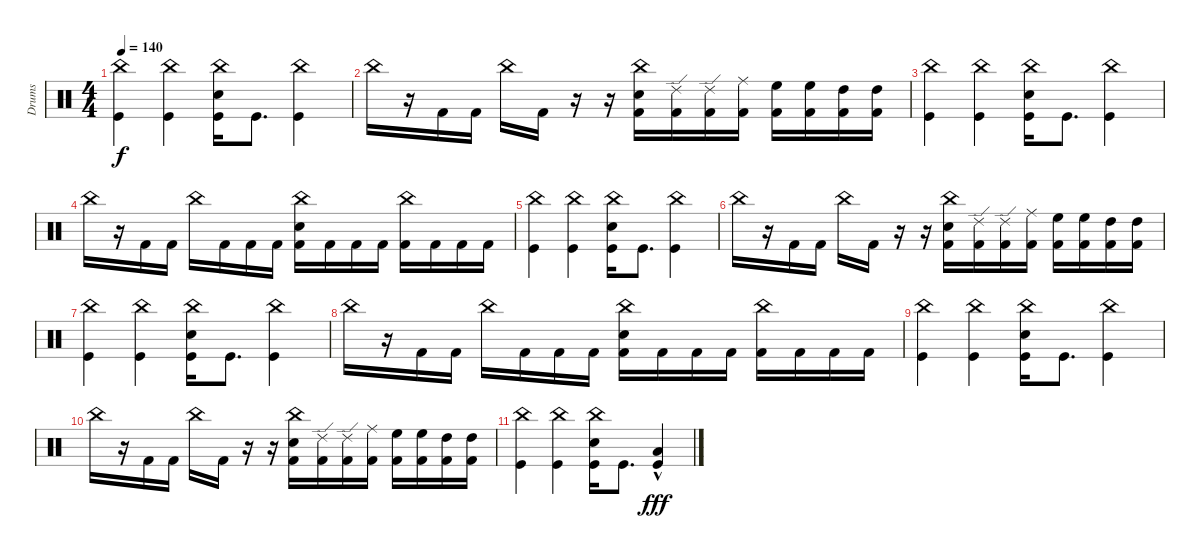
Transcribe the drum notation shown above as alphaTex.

\track ("Drums" "Drums") {mute instrument percussion}
\staff {score}
\articulation defaults
\ts (4 4)
\tempo 140
\clef neutral
\ks c
("China (hit)" "Kick (hit)").4{dy f} ("China (hit)" "Kick (hit)").4 ("China (hit)" "Electric Snare (hit)" "Kick (hit)").16 "Kick (hit)".8{d} ("China (hit)" "Kick (hit)").4 |
"China (hit)".16 r.16 "Kick (hit) 2".16 "Kick (hit) 2".16 "China (hit)".16 "Kick (hit) 2".16 r.16 r.16 ("China (hit)" "Electric Snare (hit)" "Kick (hit) 2").16 ("Ride (edge) 2" "Kick (hit) 2").16 ("Ride (edge) 2" "Kick (hit) 2").16 ("Ride (middle)" "Kick (hit) 2").16 ("High Floor Tom (hit)" "Kick (hit) 2").16 ("High Floor Tom (hit)" "Kick (hit) 2").16 ("High Tom (hit)" "Kick (hit) 2").16 ("High Tom (hit)" "Kick (hit) 2").16 |
("China (hit)" "Kick (hit)").4 ("China (hit)" "Kick (hit)").4 ("China (hit)" "Electric Snare (hit)" "Kick (hit)").16 "Kick (hit)".8{d} ("China (hit)" "Kick (hit)").4 |
"China (hit)".16 r.16 "Kick (hit) 2".16 "Kick (hit) 2".16 "China (hit)".16 "Kick (hit) 2".16 "Kick (hit) 2".16 "Kick (hit) 2".16 ("China (hit)" "Electric Snare (hit)" "Kick (hit) 2").16 "Kick (hit) 2".16 "Kick (hit) 2".16 "Kick (hit) 2".16 ("China (hit)" "Kick (hit) 2").16 "Kick (hit) 2".16 "Kick (hit) 2".16 "Kick (hit) 2".16 |
("China (hit)" "Kick (hit)").4 ("China (hit)" "Kick (hit)").4 ("China (hit)" "Electric Snare (hit)" "Kick (hit)").16 "Kick (hit)".8{d} ("China (hit)" "Kick (hit)").4 |
"China (hit)".16 r.16 "Kick (hit) 2".16 "Kick (hit) 2".16 "China (hit)".16 "Kick (hit) 2".16 r.16 r.16 ("China (hit)" "Electric Snare (hit)" "Kick (hit) 2").16 ("Ride (edge) 2" "Kick (hit) 2").16 ("Ride (edge) 2" "Kick (hit) 2").16 ("Ride (middle)" "Kick (hit) 2").16 ("High Floor Tom (hit)" "Kick (hit) 2").16 ("High Floor Tom (hit)" "Kick (hit) 2").16 ("High Tom (hit)" "Kick (hit) 2").16 ("High Tom (hit)" "Kick (hit) 2").16 |
("China (hit)" "Kick (hit)").4 ("China (hit)" "Kick (hit)").4 ("China (hit)" "Electric Snare (hit)" "Kick (hit)").16 "Kick (hit)".8{d} ("China (hit)" "Kick (hit)").4 |
"China (hit)".16 r.16 "Kick (hit) 2".16 "Kick (hit) 2".16 "China (hit)".16 "Kick (hit) 2".16 "Kick (hit) 2".16 "Kick (hit) 2".16 ("China (hit)" "Electric Snare (hit)" "Kick (hit) 2").16 "Kick (hit) 2".16 "Kick (hit) 2".16 "Kick (hit) 2".16 ("China (hit)" "Kick (hit) 2").16 "Kick (hit) 2".16 "Kick (hit) 2".16 "Kick (hit) 2".16 |
("China (hit)" "Kick (hit)").4 ("China (hit)" "Kick (hit)").4 ("China (hit)" "Electric Snare (hit)" "Kick (hit)").16 "Kick (hit)".8{d} ("China (hit)" "Kick (hit)").4 |
"China (hit)".16 r.16 "Kick (hit) 2".16 "Kick (hit) 2".16 "China (hit)".16 "Kick (hit) 2".16 r.16 r.16 ("China (hit)" "Electric Snare (hit)" "Kick (hit) 2").16 ("Ride (edge) 2" "Kick (hit) 2").16 ("Ride (edge) 2" "Kick (hit) 2").16 ("Ride (middle)" "Kick (hit) 2").16 ("High Floor Tom (hit)" "Kick (hit) 2").16 ("High Floor Tom (hit)" "Kick (hit) 2").16 ("High Tom (hit)" "Kick (hit) 2").16 ("High Tom (hit)" "Kick (hit) 2").16 |
("China (hit)" "Kick (hit)").4 ("China (hit)" "Kick (hit)").4 ("China (hit)" "Electric Snare (hit)" "Kick (hit)").16 "Kick (hit)".8{d} ("Low Floor Tom (hit)"{hac} "Kick (hit)").4{dy fff}
